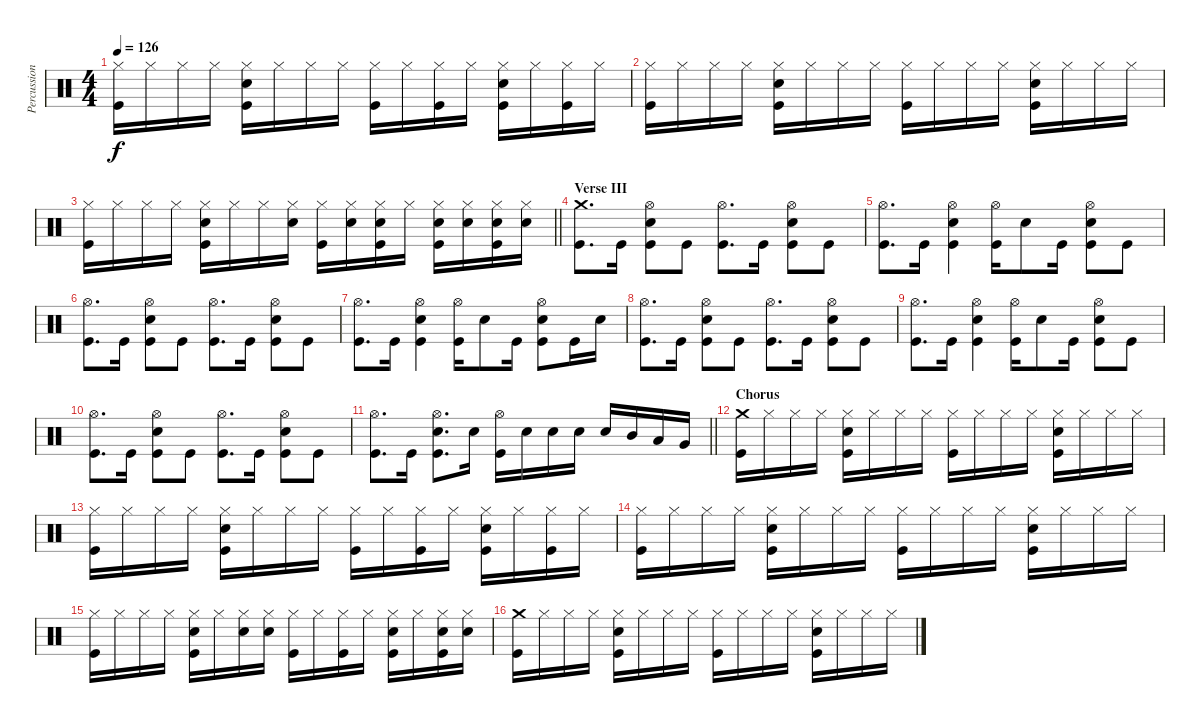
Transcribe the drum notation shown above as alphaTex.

\track ("Percussion" "Percussion") {instrument percussion}
\staff {score}
\articulation defaults
\ts (4 4)
\tempo 126
\clef neutral
\ks c
("Hi-Hat (closed)" "Kick (hit)").16{dy f} "Hi-Hat (closed)".16 "Hi-Hat (closed)".16 "Hi-Hat (closed)".16 ("Hi-Hat (closed)" "Electric Snare (hit)" "Kick (hit)").16 "Hi-Hat (closed)".16 "Hi-Hat (closed)".16 "Hi-Hat (closed)".16 ("Hi-Hat (closed)" "Kick (hit)").16 "Hi-Hat (closed)".16 ("Hi-Hat (closed)" "Kick (hit)").16 "Hi-Hat (closed)".16 ("Hi-Hat (closed)" "Electric Snare (hit)" "Kick (hit)").16 "Hi-Hat (closed)".16 ("Hi-Hat (closed)" "Kick (hit)").16 "Hi-Hat (closed)".16 |
("Hi-Hat (closed)" "Kick (hit)").16 "Hi-Hat (closed)".16 "Hi-Hat (closed)".16 "Hi-Hat (closed)".16 ("Hi-Hat (closed)" "Electric Snare (hit)" "Kick (hit)").16 "Hi-Hat (closed)".16 "Hi-Hat (closed)".16 "Hi-Hat (closed)".16 ("Hi-Hat (closed)" "Kick (hit)").16 "Hi-Hat (closed)".16 "Hi-Hat (closed)".16 "Hi-Hat (closed)".16 ("Hi-Hat (closed)" "Electric Snare (hit)" "Kick (hit)").16 "Hi-Hat (closed)".16 "Hi-Hat (closed)".16 "Hi-Hat (closed)".16 |
\barLineRight lightlight
("Hi-Hat (closed)" "Kick (hit)").16 "Hi-Hat (closed)".16 "Hi-Hat (closed)".16 "Hi-Hat (closed)".16 ("Hi-Hat (closed)" "Electric Snare (hit)" "Kick (hit)").16 "Hi-Hat (closed)".16 "Hi-Hat (closed)".16 ("Hi-Hat (closed)" "Electric Snare (hit)").16 ("Hi-Hat (closed)" "Kick (hit)").16 ("Hi-Hat (closed)" "Electric Snare (hit)").16 ("Hi-Hat (closed)" "Electric Snare (hit)" "Kick (hit)").16 "Hi-Hat (closed)".16 ("Hi-Hat (closed)" "Electric Snare (hit)" "Kick (hit)").16 ("Hi-Hat (closed)" "Electric Snare (hit)").16 ("Hi-Hat (closed)" "Electric Snare (hit)" "Kick (hit)").16 ("Hi-Hat (closed)" "Electric Snare (hit)").16 |
\section ("" "Verse III")
("Crash medium (hit)" "Kick (hit)").8{d} "Kick (hit)".16 ("Hi-Hat (open)" "Electric Snare (hit)" "Kick (hit)").8 "Kick (hit)".8 ("Hi-Hat (open)" "Kick (hit)").8{d} "Kick (hit)".16 ("Hi-Hat (open)" "Electric Snare (hit)" "Kick (hit)").8 "Kick (hit)".8 |
("Hi-Hat (open)" "Kick (hit)").8{d} "Kick (hit)".16 ("Hi-Hat (open)" "Electric Snare (hit)" "Kick (hit)").4 ("Hi-Hat (open)" "Kick (hit)").16 "Electric Snare (hit)".8 "Kick (hit)".16 ("Hi-Hat (open)" "Electric Snare (hit)" "Kick (hit)").8 "Kick (hit)".8 |
("Hi-Hat (open)" "Kick (hit)").8{d} "Kick (hit)".16 ("Hi-Hat (open)" "Electric Snare (hit)" "Kick (hit)").8 "Kick (hit)".8 ("Hi-Hat (open)" "Kick (hit)").8{d} "Kick (hit)".16 ("Hi-Hat (open)" "Electric Snare (hit)" "Kick (hit)").8 "Kick (hit)".8 |
("Hi-Hat (open)" "Kick (hit)").8{d} "Kick (hit)".16 ("Hi-Hat (open)" "Electric Snare (hit)" "Kick (hit)").4 ("Hi-Hat (open)" "Kick (hit)").16 "Electric Snare (hit)".8 "Kick (hit)".16 ("Hi-Hat (open)" "Electric Snare (hit)" "Kick (hit)").8 "Kick (hit)".16 "Electric Snare (hit)".16 |
("Hi-Hat (open)" "Kick (hit)").8{d} "Kick (hit)".16 ("Hi-Hat (open)" "Electric Snare (hit)" "Kick (hit)").8 "Kick (hit)".8 ("Hi-Hat (open)" "Kick (hit)").8{d} "Kick (hit)".16 ("Hi-Hat (open)" "Electric Snare (hit)" "Kick (hit)").8 "Kick (hit)".8 |
("Hi-Hat (open)" "Kick (hit)").8{d} "Kick (hit)".16 ("Hi-Hat (open)" "Electric Snare (hit)" "Kick (hit)").4 ("Hi-Hat (open)" "Kick (hit)").16 "Electric Snare (hit)".8 "Kick (hit)".16 ("Hi-Hat (open)" "Electric Snare (hit)" "Kick (hit)").8 "Kick (hit)".8 |
("Hi-Hat (open)" "Kick (hit)").8{d} "Kick (hit)".16 ("Hi-Hat (open)" "Electric Snare (hit)" "Kick (hit)").8 "Kick (hit)".8 ("Hi-Hat (open)" "Kick (hit)").8{d} "Kick (hit)".16 ("Hi-Hat (open)" "Electric Snare (hit)" "Kick (hit)").8 "Kick (hit)".8 |
\barLineRight lightlight
("Hi-Hat (open)" "Kick (hit)").8{d} "Kick (hit)".16 ("Hi-Hat (open)" "Electric Snare (hit)" "Kick (hit)").8{d} "Electric Snare (hit)".16 ("Hi-Hat (open)" "Kick (hit)").16 "Electric Snare (hit)".16 "Electric Snare (hit)".16 "Electric Snare (hit)".16 "Electric Snare (hit)".16 "Mid Tom (hit)".16 "Low Tom (hit)".16 "Very Low Tom (hit)".16 |
\section ("" "Chorus")
("Crash medium (hit)" "Kick (hit)").16 "Hi-Hat (closed)".16 "Hi-Hat (closed)".16 "Hi-Hat (closed)".16 ("Hi-Hat (closed)" "Electric Snare (hit)" "Kick (hit)").16 "Hi-Hat (closed)".16 "Hi-Hat (closed)".16 "Hi-Hat (closed)".16 ("Hi-Hat (closed)" "Kick (hit)").16 "Hi-Hat (closed)".16 "Hi-Hat (closed)".16 "Hi-Hat (closed)".16 ("Hi-Hat (closed)" "Electric Snare (hit)" "Kick (hit)").16 "Hi-Hat (closed)".16 "Hi-Hat (closed)".16 "Hi-Hat (closed)".16 |
("Hi-Hat (closed)" "Kick (hit)").16 "Hi-Hat (closed)".16 "Hi-Hat (closed)".16 "Hi-Hat (closed)".16 ("Hi-Hat (closed)" "Electric Snare (hit)" "Kick (hit)").16 "Hi-Hat (closed)".16 "Hi-Hat (closed)".16 "Hi-Hat (closed)".16 ("Hi-Hat (closed)" "Kick (hit)").16 "Hi-Hat (closed)".16 ("Hi-Hat (closed)" "Kick (hit)").16 "Hi-Hat (closed)".16 ("Hi-Hat (closed)" "Electric Snare (hit)" "Kick (hit)").16 "Hi-Hat (closed)".16 ("Hi-Hat (closed)" "Kick (hit)").16 "Hi-Hat (closed)".16 |
("Hi-Hat (closed)" "Kick (hit)").16 "Hi-Hat (closed)".16 "Hi-Hat (closed)".16 "Hi-Hat (closed)".16 ("Hi-Hat (closed)" "Electric Snare (hit)" "Kick (hit)").16 "Hi-Hat (closed)".16 "Hi-Hat (closed)".16 "Hi-Hat (closed)".16 ("Hi-Hat (closed)" "Kick (hit)").16 "Hi-Hat (closed)".16 "Hi-Hat (closed)".16 "Hi-Hat (closed)".16 ("Hi-Hat (closed)" "Electric Snare (hit)" "Kick (hit)").16 "Hi-Hat (closed)".16 "Hi-Hat (closed)".16 "Hi-Hat (closed)".16 |
("Hi-Hat (closed)" "Kick (hit)").16 "Hi-Hat (closed)".16 "Hi-Hat (closed)".16 "Hi-Hat (closed)".16 ("Hi-Hat (closed)" "Electric Snare (hit)" "Kick (hit)").16 "Hi-Hat (closed)".16 ("Hi-Hat (closed)" "Electric Snare (hit)").16 ("Hi-Hat (closed)" "Electric Snare (hit)").16 ("Hi-Hat (closed)" "Kick (hit)").16 "Hi-Hat (closed)".16 ("Hi-Hat (closed)" "Kick (hit)").16 "Hi-Hat (closed)".16 ("Hi-Hat (closed)" "Electric Snare (hit)" "Kick (hit)").16 "Hi-Hat (closed)".16 ("Hi-Hat (closed)" "Electric Snare (hit)" "Kick (hit)").16 ("Hi-Hat (closed)" "Electric Snare (hit)").16 |
("Crash medium (hit)" "Kick (hit)").16 "Hi-Hat (closed)".16 "Hi-Hat (closed)".16 "Hi-Hat (closed)".16 ("Hi-Hat (closed)" "Electric Snare (hit)" "Kick (hit)").16 "Hi-Hat (closed)".16 "Hi-Hat (closed)".16 "Hi-Hat (closed)".16 ("Hi-Hat (closed)" "Kick (hit)").16 "Hi-Hat (closed)".16 "Hi-Hat (closed)".16 "Hi-Hat (closed)".16 ("Hi-Hat (closed)" "Electric Snare (hit)" "Kick (hit)").16 "Hi-Hat (closed)".16 "Hi-Hat (closed)".16 "Hi-Hat (closed)".16
